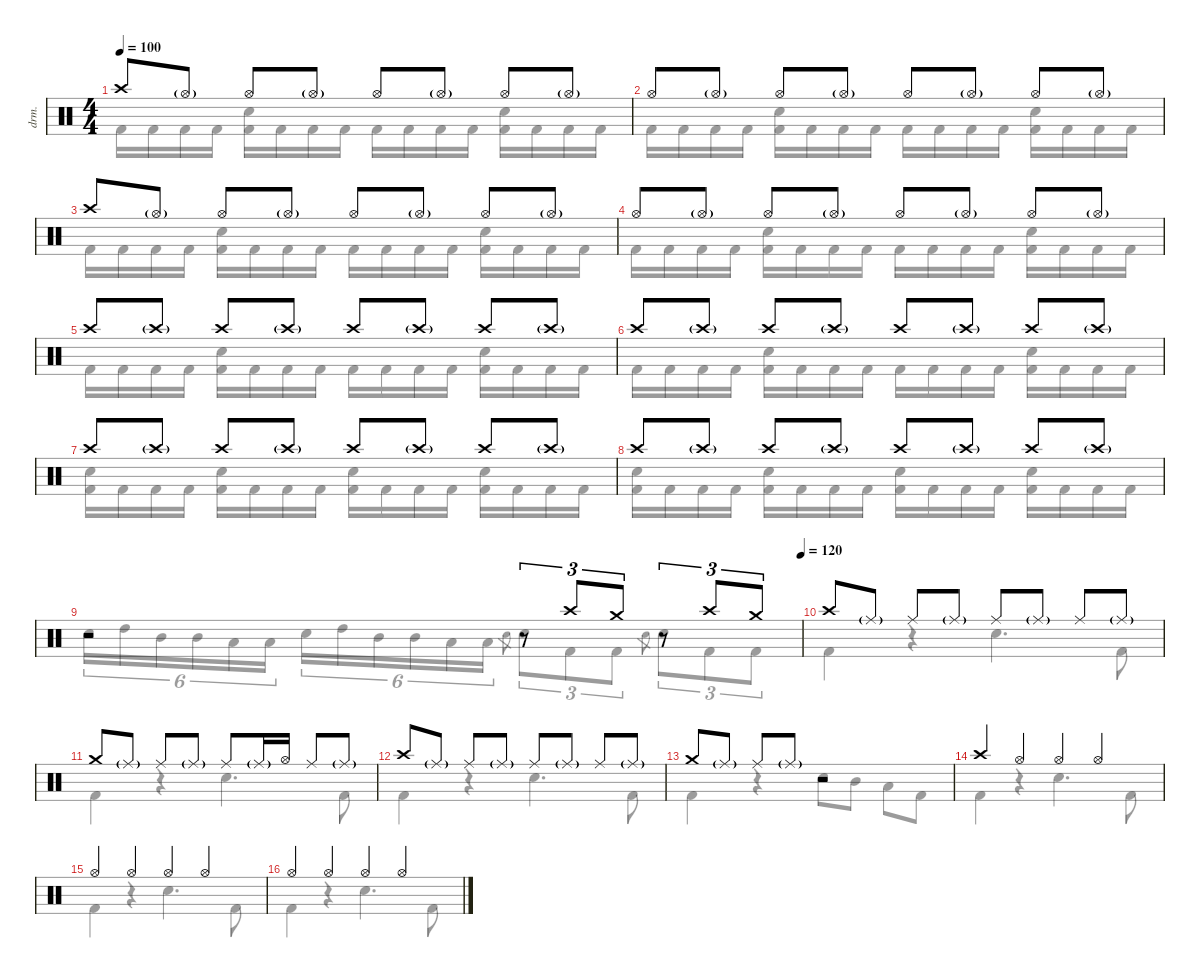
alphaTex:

\defaultSystemsLayout 4
\hideDynamics
\bracketExtendMode nobrackets
\otherSystemsTrackNameOrientation horizontal
\track ("B. Richardson Drums" "drm.") {instrument percussion}
\staff {score}
\articulation defaults
\voice
\ts (4 4)
\tempo 100
\clef neutral
\ks c "Crash high (hit)".8{dy f beam Up} "Hi-Hat (open)"{g}.8{dy mf beam Up} "Hi-Hat (open)".8{beam Up} "Hi-Hat (open)"{g}.8{beam Up} "Hi-Hat (open)".8{beam Up} "Hi-Hat (open)"{g}.8{beam Up} "Hi-Hat (open)".8{beam Up} "Hi-Hat (open)"{g}.8{beam Up}
|
"Hi-Hat (open)".8{beam Up} "Hi-Hat (open)"{g}.8{beam Up} "Hi-Hat (open)".8{beam Up} "Hi-Hat (open)"{g}.8{beam Up} "Hi-Hat (open)".8{beam Up} "Hi-Hat (open)"{g}.8{beam Up} "Hi-Hat (open)".8{beam Up} "Hi-Hat (open)"{g}.8{beam Up} |
"Crash high (hit)".8{dy f beam Up} "Hi-Hat (open)"{g}.8{dy mf beam Up} "Hi-Hat (open)".8{beam Up} "Hi-Hat (open)"{g}.8{beam Up} "Hi-Hat (open)".8{beam Up} "Hi-Hat (open)"{g}.8{beam Up} "Hi-Hat (open)".8{beam Up} "Hi-Hat (open)"{g}.8{beam Up} |
"Hi-Hat (open)".8{dy f beam Up} "Hi-Hat (open)"{g}.8{dy mf beam Up} "Hi-Hat (open)".8{beam Up} "Hi-Hat (open)"{g}.8{beam Up} "Hi-Hat (open)".8{beam Up} "Hi-Hat (open)"{g}.8{beam Up} "Hi-Hat (open)".8{beam Up} "Hi-Hat (open)"{g}.8{beam Up} |
"Crash high (hit)".8{beam Up} "Crash high (hit)"{g}.8{beam Up} "Crash high (hit)".8{beam Up} "Crash high (hit)"{g}.8{beam Up} "Crash high (hit)".8{beam Up} "Crash high (hit)"{g}.8{beam Up} "Crash high (hit)".8{beam Up} "Crash high (hit)"{g}.8{beam Up} |
"Crash high (hit)".8{beam Up} "Crash high (hit)"{g}.8{beam Up} "Crash high (hit)".8{beam Up} "Crash high (hit)"{g}.8{beam Up} "Crash high (hit)".8{beam Up} "Crash high (hit)"{g}.8{beam Up} "Crash high (hit)".8{beam Up} "Crash high (hit)"{g}.8{beam Up} |
"Crash high (hit)".8{beam Up} "Crash high (hit)"{g}.8{beam Up} "Crash high (hit)".8{beam Up} "Crash high (hit)"{g}.8{beam Up} "Crash high (hit)".8{beam Up} "Crash high (hit)"{g}.8{beam Up} "Crash high (hit)".8{beam Up} "Crash high (hit)"{g}.8{beam Up} |
"Crash high (hit)".8{beam Up} "Crash high (hit)"{g}.8{beam Up} "Crash high (hit)".8{beam Up} "Crash high (hit)"{g}.8{beam Up} "Crash high (hit)".8{beam Up} "Crash high (hit)"{g}.8{beam Up} "Crash high (hit)".8{beam Up} "Crash high (hit)"{g}.8{beam Up} |
\tempo (120 1)
r.2{beam Up} r.8{tu (3 2) beam Up} "Crash high (hit)".8{tu (3 2) beam Up} "Crash medium (hit)".8{tu (3 2) beam Up} r.8{tu (3 2) beam Up} "Crash high (hit)".8{tu (3 2) beam Up} "Crash medium (hit)".8{tu (3 2) beam Up} |
"Crash high (hit)".8{beam Up} "Ride (middle)"{g}.8{beam Up} "Ride (middle)".8{beam Up} "Ride (middle)"{g}.8{beam Up} "Ride (middle)".8{beam Up} "Ride (middle)"{g}.8{beam Up} "Ride (middle)".8{beam Up} "Ride (middle)"{g}.8{beam Up} |
"Crash medium (hit)".8{beam Up} "Ride (middle)"{g}.8{beam Up} "Ride (middle)".8{beam Up} "Ride (middle)"{g}.8{beam Up} "Ride (middle)".8{beam Up} "Ride (middle)"{g}.16{beam Up} "Hi-Hat (open)".16{beam Up} "Ride (middle)".8{beam Up} "Ride (middle)"{g}.8{beam Up} |
"Crash high (hit)".8{beam Up} "Ride (middle)"{g}.8{beam Up} "Ride (middle)".8{beam Up} "Ride (middle)"{g}.8{beam Up} "Ride (middle)".8{beam Up} "Ride (middle)"{g}.8{beam Up} "Ride (middle)".8{beam Up} "Ride (middle)"{g}.8{beam Up} |
"Crash medium (hit)".8{beam Up} "Ride (middle)"{g}.8{beam Up} "Ride (middle)".8{beam Up} "Ride (middle)"{g}.8{beam Up} r.2{beam Up} |
"Crash high (hit)".4{beam Up} "Hi-Hat (open)".4{beam Up} "Hi-Hat (open)".4{beam Up} "Hi-Hat (open)".4{beam Up} |
"Hi-Hat (open)".4{beam Up} "Hi-Hat (open)".4{beam Up} "Hi-Hat (open)".4{beam Up} "Hi-Hat (open)".4{beam Up} |
"Hi-Hat (open)".4{beam Up} "Hi-Hat (open)".4{beam Up} "Hi-Hat (open)".4{beam Up} "Hi-Hat (open)".4{beam Up}
\voice
\clef neutral
\ottava regular
\simile none
\ks c "Kick (hit) 2".16{dy fff beam Down} "Kick (hit) 2".16{beam Down} "Kick (hit) 2".16{beam Down} "Kick (hit) 2".16{beam Down}
("Snare (hit) 2" "Kick (hit) 2").16{beam Down} "Kick (hit) 2".16{beam Down} "Kick (hit) 2".16{beam Down} "Kick (hit) 2".16{beam Down} "Kick (hit) 2".16{beam Down} "Kick (hit) 2".16{beam Down} "Kick (hit) 2".16{beam Down} "Kick (hit) 2".16{beam Down} ("Snare (hit) 2" "Kick (hit) 2").16{beam Down} "Kick (hit) 2".16{beam Down} "Kick (hit) 2".16{beam Down} "Kick (hit) 2".16{beam Down} |
"Kick (hit) 2".16{beam Down} "Kick (hit) 2".16{beam Down} "Kick (hit) 2".16{beam Down} "Kick (hit) 2".16{beam Down} ("Snare (hit) 2" "Kick (hit) 2").16{beam Down} "Kick (hit) 2".16{beam Down} "Kick (hit) 2".16{beam Down} "Kick (hit) 2".16{beam Down} "Kick (hit) 2".16{beam Down} "Kick (hit) 2".16{beam Down} "Kick (hit) 2".16{beam Down} "Kick (hit) 2".16{beam Down} ("Snare (hit) 2" "Kick (hit) 2").16{beam Down} "Kick (hit) 2".16{beam Down} "Kick (hit) 2".16{beam Down} "Kick (hit) 2".16{beam Down} |
"Kick (hit) 2".16{beam Down} "Kick (hit) 2".16{beam Down} "Kick (hit) 2".16{beam Down} "Kick (hit) 2".16{beam Down} ("Snare (hit) 2" "Kick (hit) 2").16{beam Down} "Kick (hit) 2".16{beam Down} "Kick (hit) 2".16{beam Down} "Kick (hit) 2".16{beam Down} "Kick (hit) 2".16{beam Down} "Kick (hit) 2".16{beam Down} "Kick (hit) 2".16{beam Down} "Kick (hit) 2".16{beam Down} ("Snare (hit) 2" "Kick (hit) 2").16{beam Down} "Kick (hit) 2".16{beam Down} "Kick (hit) 2".16{beam Down} "Kick (hit) 2".16{beam Down} |
"Kick (hit) 2".16{beam Down} "Kick (hit) 2".16{beam Down} "Kick (hit) 2".16{beam Down} "Kick (hit) 2".16{beam Down} ("Snare (hit) 2" "Kick (hit) 2").16{beam Down} "Kick (hit) 2".16{beam Down} "Kick (hit) 2".16{beam Down} "Kick (hit) 2".16{beam Down} "Kick (hit) 2".16{beam Down} "Kick (hit) 2".16{beam Down} "Kick (hit) 2".16{beam Down} "Kick (hit) 2".16{beam Down} ("Snare (hit) 2" "Kick (hit) 2").16{beam Down} "Kick (hit) 2".16{beam Down} "Kick (hit) 2".16{beam Down} "Kick (hit) 2".16{beam Down} |
"Kick (hit) 2".16{beam Down} "Kick (hit) 2".16{beam Down} "Kick (hit) 2".16{beam Down} "Kick (hit) 2".16{beam Down} ("Snare (hit) 2" "Kick (hit) 2").16{beam Down} "Kick (hit) 2".16{beam Down} "Kick (hit) 2".16{beam Down} "Kick (hit) 2".16{beam Down} "Kick (hit) 2".16{beam Down} "Kick (hit) 2".16{beam Down} "Kick (hit) 2".16{beam Down} "Kick (hit) 2".16{beam Down} ("Snare (hit) 2" "Kick (hit) 2").16{beam Down} "Kick (hit) 2".16{beam Down} "Kick (hit) 2".16{beam Down} "Kick (hit) 2".16{beam Down} |
"Kick (hit) 2".16{beam Down} "Kick (hit) 2".16{beam Down} "Kick (hit) 2".16{beam Down} "Kick (hit) 2".16{beam Down} ("Snare (hit) 2" "Kick (hit) 2").16{beam Down} "Kick (hit) 2".16{beam Down} "Kick (hit) 2".16{beam Down} "Kick (hit) 2".16{beam Down} "Kick (hit) 2".16{beam Down} "Kick (hit) 2".16{beam Down} "Kick (hit) 2".16{beam Down} "Kick (hit) 2".16{beam Down} ("Snare (hit) 2" "Kick (hit) 2").16{beam Down} "Kick (hit) 2".16{beam Down} "Kick (hit) 2".16{beam Down} "Kick (hit) 2".16{beam Down} |
("Snare (hit) 2" "Kick (hit) 2").16{beam Down} "Kick (hit) 2".16{beam Down} "Kick (hit) 2".16{beam Down} "Kick (hit) 2".16{beam Down} ("Snare (hit) 2" "Kick (hit) 2").16{beam Down} "Kick (hit) 2".16{beam Down} "Kick (hit) 2".16{beam Down} "Kick (hit) 2".16{beam Down} ("Snare (hit) 2" "Kick (hit) 2").16{beam Down} "Kick (hit) 2".16{beam Down} "Kick (hit) 2".16{beam Down} "Kick (hit) 2".16{beam Down} ("Snare (hit) 2" "Kick (hit) 2").16{beam Down} "Kick (hit) 2".16{beam Down} "Kick (hit) 2".16{beam Down} "Kick (hit) 2".16{beam Down} |
("Snare (hit) 2" "Kick (hit) 2").16{beam Down} "Kick (hit) 2".16{beam Down} "Kick (hit) 2".16{beam Down} "Kick (hit) 2".16{beam Down} ("Snare (hit) 2" "Kick (hit) 2").16{beam Down} "Kick (hit) 2".16{beam Down} "Kick (hit) 2".16{beam Down} "Kick (hit) 2".16{beam Down} ("Snare (hit) 2" "Kick (hit) 2").16{beam Down} "Kick (hit) 2".16{beam Down} "Kick (hit) 2".16{beam Down} "Kick (hit) 2".16{beam Down} ("Snare (hit) 2" "Kick (hit) 2").16{beam Down} "Kick (hit) 2".16{beam Down} "Kick (hit) 2".16{beam Down} "Kick (hit) 2".16{beam Down} |
"Snare (hit) 2".16{tu (6 4) beam Down} "High Tom (hit)".16{tu (6 4) beam Down} "Mid Tom (hit)".16{tu (6 4) beam Down} "Mid Tom (hit)".16{tu (6 4) beam Down} "Low Tom (hit)".16{tu (6 4) beam Down} "Low Tom (hit)".16{tu (6 4) beam Down} "Snare (hit) 2".16{tu (6 4) beam Down} "High Tom (hit)".16{tu (6 4) beam Down} "Mid Tom (hit)".16{tu (6 4) beam Down} "Mid Tom (hit)".16{tu (6 4) beam Down} "Low Tom (hit)".16{tu (6 4) beam Down} "Low Tom (hit)".16{tu (6 4) beam Down} "Electric Snare (hit)".8{gr dy ff beam Down} "Snare (hit) 2".8{tu (3 2) dy fff beam Down} "Kick (hit) 2".8{tu (3 2) beam Down} "Kick (hit) 2".8{tu (3 2) beam Down} "Electric Snare (hit)".8{gr dy ff beam Down} "Snare (hit) 2".8{tu (3 2) dy fff beam Down} "Kick (hit) 2".8{tu (3 2) beam Down} "Kick (hit) 2".8{tu (3 2) beam Down} |
"Kick (hit) 2".4{beam Down} r.4{beam Down} "Snare (hit) 2".4{d beam Down} "Kick (hit) 2".8{beam Down} |
"Kick (hit) 2".4{beam Down} r.4{beam Down} "Snare (hit) 2".4{d beam Down} "Kick (hit) 2".8{beam Down} |
"Kick (hit) 2".4{beam Down} r.4{beam Down} "Snare (hit) 2".4{d beam Down} "Kick (hit) 2".8{beam Down} |
"Kick (hit) 2".4{beam Down} r.4{beam Down} "Snare (hit) 2".8{beam Down} "Mid Tom (hit)".8{beam Down} "Low Tom (hit)".8{beam Down} "Kick (hit) 2".8{beam Down} |
"Kick (hit) 2".4{beam Down} r.4{beam Down} "Snare (hit) 2".4{d beam Down} "Kick (hit) 2".8{beam Down} |
"Kick (hit) 2".4{beam Down} r.4{beam Down} "Snare (hit) 2".4{d beam Down} "Kick (hit) 2".8{beam Down} |
"Kick (hit) 2".4{beam Down} r.4{beam Down} "Snare (hit) 2".4{d beam Down} "Kick (hit) 2".8{beam Down}
